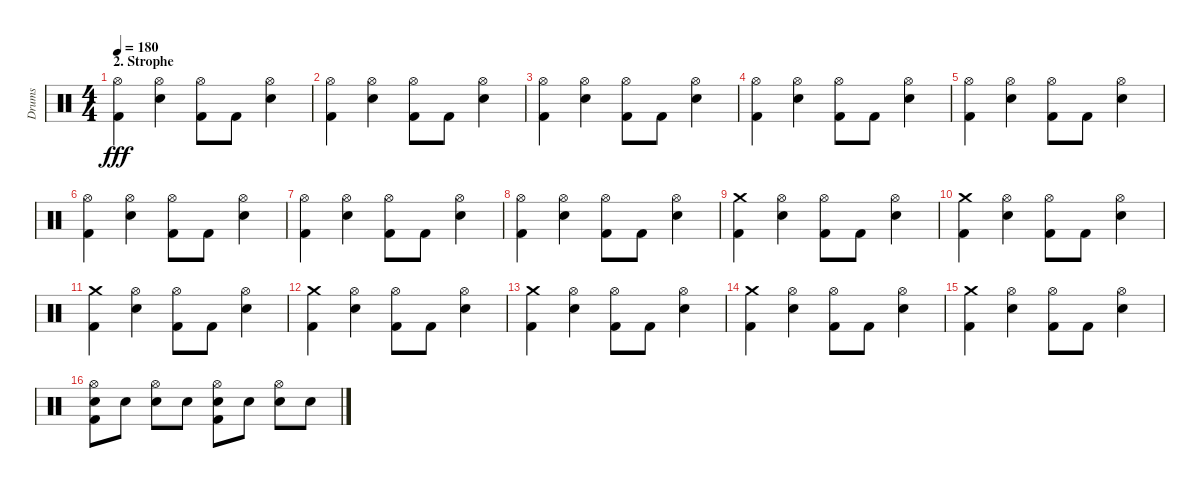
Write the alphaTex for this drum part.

\track ("Drums" "Drums") {instrument percussion}
\staff {score}
\articulation defaults
\ts (4 4)
\section ("" "2. Strophe")
\tempo 180
\clef neutral
\ks c
("Hi-Hat (open)" "Kick (hit) 2").4{dy fff} ("Hi-Hat (open)" "Electric Snare (hit)").4 ("Hi-Hat (open)" "Kick (hit) 2").8 "Kick (hit) 2".8 ("Hi-Hat (open)" "Electric Snare (hit)").4 |
("Hi-Hat (open)" "Kick (hit) 2").4 ("Hi-Hat (open)" "Electric Snare (hit)").4 ("Hi-Hat (open)" "Kick (hit) 2").8 "Kick (hit) 2".8 ("Hi-Hat (open)" "Electric Snare (hit)").4 |
("Hi-Hat (open)" "Kick (hit) 2").4 ("Hi-Hat (open)" "Electric Snare (hit)").4 ("Hi-Hat (open)" "Kick (hit) 2").8 "Kick (hit) 2".8 ("Hi-Hat (open)" "Electric Snare (hit)").4 |
("Hi-Hat (open)" "Kick (hit) 2").4 ("Hi-Hat (open)" "Electric Snare (hit)").4 ("Hi-Hat (open)" "Kick (hit) 2").8 "Kick (hit) 2".8 ("Hi-Hat (open)" "Electric Snare (hit)").4 |
("Hi-Hat (open)" "Kick (hit) 2").4 ("Hi-Hat (open)" "Electric Snare (hit)").4 ("Hi-Hat (open)" "Kick (hit) 2").8 "Kick (hit) 2".8 ("Hi-Hat (open)" "Electric Snare (hit)").4 |
("Hi-Hat (open)" "Kick (hit) 2").4 ("Hi-Hat (open)" "Electric Snare (hit)").4 ("Hi-Hat (open)" "Kick (hit) 2").8 "Kick (hit) 2".8 ("Hi-Hat (open)" "Electric Snare (hit)").4 |
("Hi-Hat (open)" "Kick (hit) 2").4 ("Hi-Hat (open)" "Electric Snare (hit)").4 ("Hi-Hat (open)" "Kick (hit) 2").8 "Kick (hit) 2".8 ("Hi-Hat (open)" "Electric Snare (hit)").4 |
("Hi-Hat (open)" "Kick (hit) 2").4 ("Hi-Hat (open)" "Electric Snare (hit)").4 ("Hi-Hat (open)" "Kick (hit) 2").8 "Kick (hit) 2".8 ("Hi-Hat (open)" "Electric Snare (hit)").4 |
("Crash medium (hit)" "Kick (hit) 2").4 ("Hi-Hat (open)" "Electric Snare (hit)").4 ("Hi-Hat (open)" "Kick (hit) 2").8 "Kick (hit) 2".8 ("Hi-Hat (open)" "Electric Snare (hit)").4 |
("Crash medium (hit)" "Kick (hit) 2").4 ("Hi-Hat (open)" "Electric Snare (hit)").4 ("Hi-Hat (open)" "Kick (hit) 2").8 "Kick (hit) 2".8 ("Hi-Hat (open)" "Electric Snare (hit)").4 |
("Crash medium (hit)" "Kick (hit) 2").4 ("Hi-Hat (open)" "Electric Snare (hit)").4 ("Hi-Hat (open)" "Kick (hit) 2").8 "Kick (hit) 2".8 ("Hi-Hat (open)" "Electric Snare (hit)").4 |
("Crash medium (hit)" "Kick (hit) 2").4 ("Hi-Hat (open)" "Electric Snare (hit)").4 ("Hi-Hat (open)" "Kick (hit) 2").8 "Kick (hit) 2".8 ("Hi-Hat (open)" "Electric Snare (hit)").4 |
("Crash medium (hit)" "Kick (hit) 2").4 ("Hi-Hat (open)" "Electric Snare (hit)").4 ("Hi-Hat (open)" "Kick (hit) 2").8 "Kick (hit) 2".8 ("Hi-Hat (open)" "Electric Snare (hit)").4 |
("Crash medium (hit)" "Kick (hit) 2").4 ("Hi-Hat (open)" "Electric Snare (hit)").4 ("Hi-Hat (open)" "Kick (hit) 2").8 "Kick (hit) 2".8 ("Hi-Hat (open)" "Electric Snare (hit)").4 |
("Crash medium (hit)" "Kick (hit) 2").4 ("Hi-Hat (open)" "Electric Snare (hit)").4 ("Hi-Hat (open)" "Kick (hit) 2").8 "Kick (hit) 2".8 ("Hi-Hat (open)" "Electric Snare (hit)").4 |
("Hi-Hat (open)" "Kick (hit) 2" "Electric Snare (hit)").8 "Electric Snare (hit)".8 ("Hi-Hat (open)" "Electric Snare (hit)").8 "Electric Snare (hit)".8 ("Hi-Hat (open)" "Kick (hit) 2" "Electric Snare (hit)").8 "Electric Snare (hit)".8 ("Hi-Hat (open)" "Electric Snare (hit)").8 "Electric Snare (hit)".8
